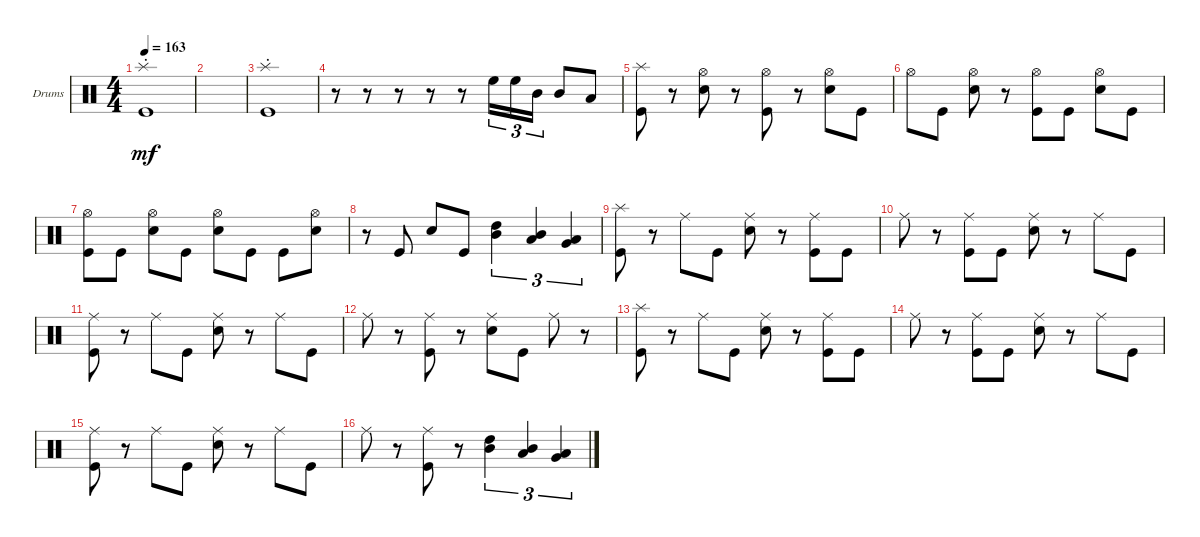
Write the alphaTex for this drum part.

\bracketExtendMode groupsimilarinstruments
\firstSystemTrackNameOrientation horizontal
\otherSystemsTrackNameOrientation horizontal
\track ("Drumkit" "Drums") {instrument percussion}
\staff {score}
\articulation defaults
\ts (4 4)
\tempo 163
\clef neutral
\ks c
("Kick (hit)" "Splash (hit)"{st}).1{dy mf} |
|
("Kick (hit)" "Splash (hit)"{st}).1 |
r.8 r.8 r.8 r.8 r.8 "High Floor Tom (hit)".16{tu (3 2)} "High Floor Tom (hit)".16{tu (3 2)} "Mid Tom (hit)".16{tu (3 2)} "Mid Tom (hit)".8 "Low Tom (hit)".8 |
("Kick (hit)" "Splash (hit)").8 r.8 ("Snare (hit) 2" "Hi-Hat (open)").8 r.8 ("Kick (hit)" "Hi-Hat (open)").8 r.8 ("Snare (hit) 2" "Hi-Hat (open)").8 "Kick (hit)".8 |
"Hi-Hat (open)".8 "Kick (hit)".8 ("Snare (hit) 2" "Hi-Hat (open)").8 r.8 ("Kick (hit)" "Hi-Hat (open)").8 "Kick (hit)".8 ("Snare (hit) 2" "Hi-Hat (open)").8 "Kick (hit)".8 |
("Kick (hit)" "Hi-Hat (open)").8 "Kick (hit)".8 ("Snare (hit) 2" "Hi-Hat (open)").8 "Kick (hit)".8 ("Snare (hit) 2" "Hi-Hat (open)").8 "Kick (hit)".8 "Kick (hit)".8 ("Snare (hit) 2" "Hi-Hat (open)").8 |
r.8 "Kick (hit)".8 "Snare (hit) 2".8 "Kick (hit)".8 ("High Tom (hit)" "Mid Tom (hit)").4{tu (3 2)} ("Mid Tom (hit)" "Low Tom (hit)").4{tu (3 2)} ("Low Tom (hit)" "Very Low Tom (hit)").4{tu (3 2)} |
("Kick (hit)" "Splash (hit)").8 r.8 "Ride (middle)".8 "Kick (hit)".8 ("Snare (hit) 2" "Ride (middle)").8 r.8 ("Kick (hit)" "Ride (middle)").8 "Kick (hit)".8 |
"Ride (middle)".8 r.8 ("Kick (hit)" "Ride (middle)").8 "Kick (hit)".8 ("Snare (hit) 2" "Ride (middle)").8 r.8 "Ride (middle)".8 "Kick (hit)".8 |
("Kick (hit)" "Ride (middle)").8 r.8 "Ride (middle)".8 "Kick (hit)".8 ("Snare (hit) 2" "Ride (middle)").8 r.8 "Ride (middle)".8 "Kick (hit)".8 |
"Ride (middle)".8 r.8 ("Kick (hit)" "Ride (middle)").8 r.8 ("Snare (hit) 2" "Ride (middle)").8 "Kick (hit)".8 "Ride (middle)".8 r.8 |
("Kick (hit)" "Splash (hit)").8 r.8 "Ride (middle)".8 "Kick (hit)".8 ("Snare (hit) 2" "Ride (middle)").8 r.8 ("Kick (hit)" "Ride (middle)").8 "Kick (hit)".8 |
"Ride (middle)".8 r.8 ("Kick (hit)" "Ride (middle)").8 "Kick (hit)".8 ("Snare (hit) 2" "Ride (middle)").8 r.8 "Ride (middle)".8 "Kick (hit)".8 |
("Kick (hit)" "Ride (middle)").8 r.8 "Ride (middle)".8 "Kick (hit)".8 ("Snare (hit) 2" "Ride (middle)").8 r.8 "Ride (middle)".8 "Kick (hit)".8 |
"Ride (middle)".8 r.8 ("Kick (hit)" "Ride (middle)").8 r.8 ("High Tom (hit)" "Mid Tom (hit)").4{tu (3 2)} ("Mid Tom (hit)" "Low Tom (hit)").4{tu (3 2)} ("Low Tom (hit)" "Very Low Tom (hit)").4{tu (3 2)}
